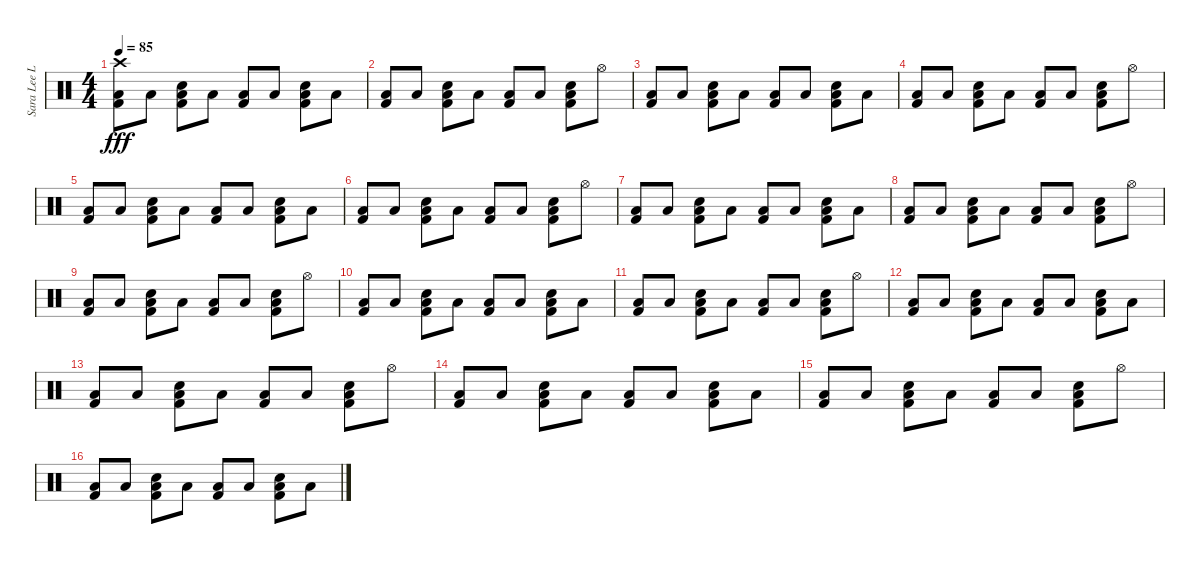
\track ("Sara Lee Lucas" "Sara Lee L") {instrument percussion}
\staff {score}
\articulation defaults
\ts (4 4)
\tempo 85
\clef neutral
\ks c
("Crash high (hit)" "Low Tom (hit)" "Kick (hit) 2").8{dy fff} "Low Tom (hit)".8 ("Low Tom (hit)" "Snare (hit) 2" "Kick (hit) 2").8 "Low Tom (hit)".8 ("Low Tom (hit)" "Kick (hit) 2").8 "Low Tom (hit)".8 ("Low Tom (hit)" "Snare (hit) 2" "Kick (hit) 2").8 "Low Tom (hit)".8 |
("Low Tom (hit)" "Kick (hit) 2").8 "Low Tom (hit)".8 ("Low Tom (hit)" "Snare (hit) 2" "Kick (hit) 2").8 "Low Tom (hit)".8 ("Low Tom (hit)" "Kick (hit) 2").8 "Low Tom (hit)".8 ("Low Tom (hit)" "Snare (hit) 2" "Kick (hit) 2").8 "Hi-Hat (open)".8 |
("Low Tom (hit)" "Kick (hit) 2").8 "Low Tom (hit)".8 ("Low Tom (hit)" "Snare (hit) 2" "Kick (hit) 2").8 "Low Tom (hit)".8 ("Low Tom (hit)" "Kick (hit) 2").8 "Low Tom (hit)".8 ("Low Tom (hit)" "Snare (hit) 2" "Kick (hit) 2").8 "Low Tom (hit)".8 |
("Low Tom (hit)" "Kick (hit) 2").8 "Low Tom (hit)".8 ("Low Tom (hit)" "Snare (hit) 2" "Kick (hit) 2").8 "Low Tom (hit)".8 ("Low Tom (hit)" "Kick (hit) 2").8 "Low Tom (hit)".8 ("Low Tom (hit)" "Snare (hit) 2" "Kick (hit) 2").8 "Hi-Hat (open)".8 |
("Low Tom (hit)" "Kick (hit) 2").8 "Low Tom (hit)".8 ("Low Tom (hit)" "Snare (hit) 2" "Kick (hit) 2").8 "Low Tom (hit)".8 ("Low Tom (hit)" "Kick (hit) 2").8 "Low Tom (hit)".8 ("Low Tom (hit)" "Snare (hit) 2" "Kick (hit) 2").8 "Low Tom (hit)".8 |
("Low Tom (hit)" "Kick (hit) 2").8 "Low Tom (hit)".8 ("Low Tom (hit)" "Snare (hit) 2" "Kick (hit) 2").8 "Low Tom (hit)".8 ("Low Tom (hit)" "Kick (hit) 2").8 "Low Tom (hit)".8 ("Low Tom (hit)" "Snare (hit) 2" "Kick (hit) 2").8 "Hi-Hat (open)".8 |
("Low Tom (hit)" "Kick (hit) 2").8 "Low Tom (hit)".8 ("Low Tom (hit)" "Snare (hit) 2" "Kick (hit) 2").8 "Low Tom (hit)".8 ("Low Tom (hit)" "Kick (hit) 2").8 "Low Tom (hit)".8 ("Low Tom (hit)" "Snare (hit) 2" "Kick (hit) 2").8 "Low Tom (hit)".8 |
("Low Tom (hit)" "Kick (hit) 2").8 "Low Tom (hit)".8 ("Low Tom (hit)" "Snare (hit) 2" "Kick (hit) 2").8 "Low Tom (hit)".8 ("Low Tom (hit)" "Kick (hit) 2").8 "Low Tom (hit)".8 ("Low Tom (hit)" "Snare (hit) 2" "Kick (hit) 2").8 "Hi-Hat (open)".8 |
("Low Tom (hit)" "Kick (hit) 2").8 "Low Tom (hit)".8 ("Low Tom (hit)" "Snare (hit) 2" "Kick (hit) 2").8 "Low Tom (hit)".8 ("Low Tom (hit)" "Kick (hit) 2").8 "Low Tom (hit)".8 ("Low Tom (hit)" "Snare (hit) 2" "Kick (hit) 2").8 "Hi-Hat (open)".8 |
("Low Tom (hit)" "Kick (hit) 2").8 "Low Tom (hit)".8 ("Low Tom (hit)" "Snare (hit) 2" "Kick (hit) 2").8 "Low Tom (hit)".8 ("Low Tom (hit)" "Kick (hit) 2").8 "Low Tom (hit)".8 ("Low Tom (hit)" "Snare (hit) 2" "Kick (hit) 2").8 "Low Tom (hit)".8 |
("Low Tom (hit)" "Kick (hit) 2").8 "Low Tom (hit)".8 ("Low Tom (hit)" "Snare (hit) 2" "Kick (hit) 2").8 "Low Tom (hit)".8 ("Low Tom (hit)" "Kick (hit) 2").8 "Low Tom (hit)".8 ("Low Tom (hit)" "Snare (hit) 2" "Kick (hit) 2").8 "Hi-Hat (open)".8 |
("Low Tom (hit)" "Kick (hit) 2").8 "Low Tom (hit)".8 ("Low Tom (hit)" "Snare (hit) 2" "Kick (hit) 2").8 "Low Tom (hit)".8 ("Low Tom (hit)" "Kick (hit) 2").8 "Low Tom (hit)".8 ("Low Tom (hit)" "Snare (hit) 2" "Kick (hit) 2").8 "Low Tom (hit)".8 |
("Low Tom (hit)" "Kick (hit) 2").8 "Low Tom (hit)".8 ("Low Tom (hit)" "Snare (hit) 2" "Kick (hit) 2").8 "Low Tom (hit)".8 ("Low Tom (hit)" "Kick (hit) 2").8 "Low Tom (hit)".8 ("Low Tom (hit)" "Snare (hit) 2" "Kick (hit) 2").8 "Hi-Hat (open)".8 |
("Low Tom (hit)" "Kick (hit) 2").8 "Low Tom (hit)".8 ("Low Tom (hit)" "Snare (hit) 2" "Kick (hit) 2").8 "Low Tom (hit)".8 ("Low Tom (hit)" "Kick (hit) 2").8 "Low Tom (hit)".8 ("Low Tom (hit)" "Snare (hit) 2" "Kick (hit) 2").8 "Low Tom (hit)".8 |
("Low Tom (hit)" "Kick (hit) 2").8 "Low Tom (hit)".8 ("Low Tom (hit)" "Snare (hit) 2" "Kick (hit) 2").8 "Low Tom (hit)".8 ("Low Tom (hit)" "Kick (hit) 2").8 "Low Tom (hit)".8 ("Low Tom (hit)" "Snare (hit) 2" "Kick (hit) 2").8 "Hi-Hat (open)".8 |
("Low Tom (hit)" "Kick (hit) 2").8 "Low Tom (hit)".8 ("Low Tom (hit)" "Snare (hit) 2" "Kick (hit) 2").8 "Low Tom (hit)".8 ("Low Tom (hit)" "Kick (hit) 2").8 "Low Tom (hit)".8 ("Low Tom (hit)" "Snare (hit) 2" "Kick (hit) 2").8 "Low Tom (hit)".8
